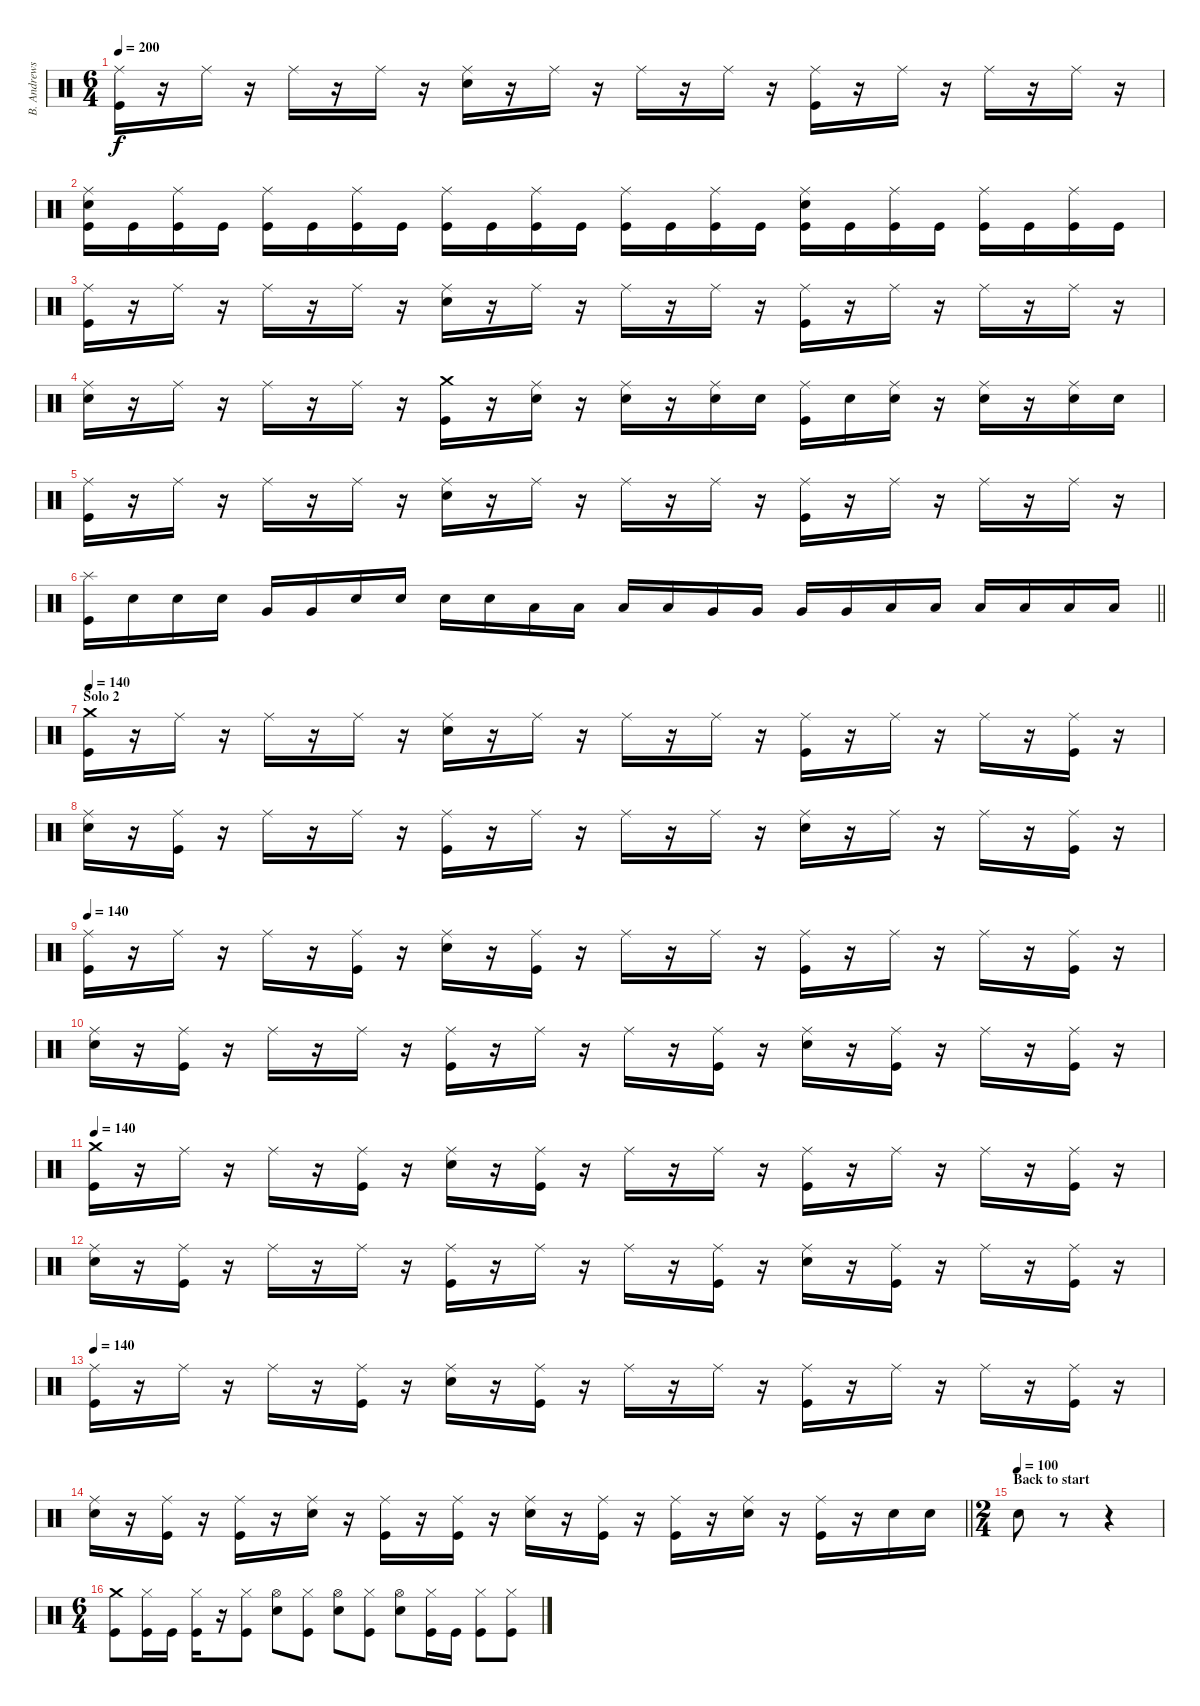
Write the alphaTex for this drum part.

\track ("B. Andrews" "B. Andrews") {instrument percussion}
\staff {score}
\articulation defaults
\ts (6 4)
\tempo 200
\clef neutral
\ks c
("Ride (middle)" "Kick (hit)").16{dy f} r.16 "Ride (middle)".16 r.16 "Ride (middle)".16 r.16 "Ride (middle)".16 r.16 ("Ride (middle)" "Electric Snare (hit)").16 r.16 "Ride (middle)".16 r.16 "Ride (middle)".16 r.16 "Ride (middle)".16 r.16 ("Ride (middle)" "Kick (hit)").16 r.16 "Ride (middle)".16 r.16 "Ride (middle)".16 r.16 "Ride (middle)".16 r.16 |
("Ride (middle)" "Electric Snare (hit)" "Kick (hit)").16 "Kick (hit)".16 ("Ride (middle)" "Kick (hit)").16 "Kick (hit)".16 ("Ride (middle)" "Kick (hit)").16 "Kick (hit)".16 ("Ride (middle)" "Kick (hit)").16 "Kick (hit)".16 ("Ride (middle)" "Kick (hit)").16 "Kick (hit)".16 ("Ride (middle)" "Kick (hit)").16 "Kick (hit)".16 ("Ride (middle)" "Kick (hit)").16 "Kick (hit)".16 ("Ride (middle)" "Kick (hit)").16 "Kick (hit)".16 ("Ride (middle)" "Electric Snare (hit)" "Kick (hit)").16 "Kick (hit)".16 ("Ride (middle)" "Kick (hit)").16 "Kick (hit)".16 ("Ride (middle)" "Kick (hit)").16 "Kick (hit)".16 ("Ride (middle)" "Kick (hit)").16 "Kick (hit)".16 |
("Ride (middle)" "Kick (hit)").16 r.16 "Ride (middle)".16 r.16 "Ride (middle)".16 r.16 "Ride (middle)".16 r.16 ("Ride (middle)" "Electric Snare (hit)").16 r.16 "Ride (middle)".16 r.16 "Ride (middle)".16 r.16 "Ride (middle)".16 r.16 ("Ride (middle)" "Kick (hit)").16 r.16 "Ride (middle)".16 r.16 "Ride (middle)".16 r.16 "Ride (middle)".16 r.16 |
("Ride (middle)" "Electric Snare (hit)").16 r.16 "Ride (middle)".16 r.16 "Ride (middle)".16 r.16 "Ride (middle)".16 r.16 ("Crash medium (hit)" "Kick (hit)").16 r.16 ("Ride (middle)" "Electric Snare (hit)").16 r.16 ("Ride (middle)" "Electric Snare (hit)").16 r.16 ("Ride (middle)" "Electric Snare (hit)").16 "Electric Snare (hit)".16 ("Ride (middle)" "Kick (hit)").16 "Electric Snare (hit)".16 ("Ride (middle)" "Electric Snare (hit)").16 r.16 ("Ride (middle)" "Electric Snare (hit)").16 r.16 ("Ride (middle)" "Electric Snare (hit)").16 "Electric Snare (hit)".16 |
("Ride (middle)" "Kick (hit)").16 r.16 "Ride (middle)".16 r.16 "Ride (middle)".16 r.16 "Ride (middle)".16 r.16 ("Ride (middle)" "Electric Snare (hit)").16 r.16 "Ride (middle)".16 r.16 "Ride (middle)".16 r.16 "Ride (middle)".16 r.16 ("Ride (middle)" "Kick (hit)").16 r.16 "Ride (middle)".16 r.16 "Ride (middle)".16 r.16 "Ride (middle)".16 r.16 |
\barLineRight lightlight
("Splash (hit)" "Kick (hit)").16 "Electric Snare (hit)".16 "Electric Snare (hit)".16 "Electric Snare (hit)".16 "Very Low Tom (hit)".16 "Very Low Tom (hit)".16 "Electric Snare (hit)".16 "Electric Snare (hit)".16 "Electric Snare (hit)".16 "Electric Snare (hit)".16 "Low Tom (hit)".16 "Low Tom (hit)".16 "Low Tom (hit)".16 "Low Tom (hit)".16 "Very Low Tom (hit)".16 "Very Low Tom (hit)".16 "Very Low Tom (hit)".16 "Very Low Tom (hit)".16 "Low Floor Tom (hit)".16 "Low Floor Tom (hit)".16 "Low Floor Tom (hit)".16 "Low Floor Tom (hit)".16 "Low Floor Tom (hit)".16 "Low Floor Tom (hit)".16 |
\section ("" "Solo 2")
\tempo 140
("Crash medium (hit)" "Kick (hit)").16 r.16 "Ride (middle)".16 r.16 "Ride (middle)".16 r.16 "Ride (middle)".16 r.16 ("Ride (middle)" "Electric Snare (hit)").16 r.16 "Ride (middle)".16 r.16 "Ride (middle)".16 r.16 "Ride (middle)".16 r.16 ("Ride (middle)" "Kick (hit)").16 r.16 "Ride (middle)".16 r.16 "Ride (middle)".16 r.16 ("Ride (middle)" "Kick (hit)").16 r.16 |
("Ride (middle)" "Electric Snare (hit)").16 r.16 ("Ride (middle)" "Kick (hit)").16 r.16 "Ride (middle)".16 r.16 "Ride (middle)".16 r.16 ("Ride (middle)" "Kick (hit)").16 r.16 "Ride (middle)".16 r.16 "Ride (middle)".16 r.16 "Ride (middle)".16 r.16 ("Ride (middle)" "Electric Snare (hit)").16 r.16 "Ride (middle)".16 r.16 "Ride (middle)".16 r.16 ("Ride (middle)" "Kick (hit)").16 r.16 |
\tempo 140
("Ride (middle)" "Kick (hit)").16 r.16 "Ride (middle)".16 r.16 "Ride (middle)".16 r.16 ("Ride (middle)" "Kick (hit)").16 r.16 ("Ride (middle)" "Electric Snare (hit)").16 r.16 ("Ride (middle)" "Kick (hit)").16 r.16 "Ride (middle)".16 r.16 "Ride (middle)".16 r.16 ("Ride (middle)" "Kick (hit)").16 r.16 "Ride (middle)".16 r.16 "Ride (middle)".16 r.16 ("Ride (middle)" "Kick (hit)").16 r.16 |
("Ride (middle)" "Electric Snare (hit)").16 r.16 ("Ride (middle)" "Kick (hit)").16 r.16 "Ride (middle)".16 r.16 "Ride (middle)".16 r.16 ("Ride (middle)" "Kick (hit)").16 r.16 "Ride (middle)".16 r.16 "Ride (middle)".16 r.16 ("Ride (middle)" "Kick (hit)").16 r.16 ("Ride (middle)" "Electric Snare (hit)").16 r.16 ("Ride (middle)" "Kick (hit)").16 r.16 "Ride (middle)".16 r.16 ("Ride (middle)" "Kick (hit)").16 r.16 |
\tempo 140
("Crash medium (hit)" "Kick (hit)").16 r.16 "Ride (middle)".16 r.16 "Ride (middle)".16 r.16 ("Ride (middle)" "Kick (hit)").16 r.16 ("Ride (middle)" "Electric Snare (hit)").16 r.16 ("Ride (middle)" "Kick (hit)").16 r.16 "Ride (middle)".16 r.16 "Ride (middle)".16 r.16 ("Ride (middle)" "Kick (hit)").16 r.16 "Ride (middle)".16 r.16 "Ride (middle)".16 r.16 ("Ride (middle)" "Kick (hit)").16 r.16 |
("Ride (middle)" "Electric Snare (hit)").16 r.16 ("Ride (middle)" "Kick (hit)").16 r.16 "Ride (middle)".16 r.16 "Ride (middle)".16 r.16 ("Ride (middle)" "Kick (hit)").16 r.16 "Ride (middle)".16 r.16 "Ride (middle)".16 r.16 ("Ride (middle)" "Kick (hit)").16 r.16 ("Ride (middle)" "Electric Snare (hit)").16 r.16 ("Ride (middle)" "Kick (hit)").16 r.16 "Ride (middle)".16 r.16 ("Ride (middle)" "Kick (hit)").16 r.16 |
\tempo 140
("Ride (middle)" "Kick (hit)").16 r.16 "Ride (middle)".16 r.16 "Ride (middle)".16 r.16 ("Ride (middle)" "Kick (hit)").16 r.16 ("Ride (middle)" "Electric Snare (hit)").16 r.16 ("Ride (middle)" "Kick (hit)").16 r.16 "Ride (middle)".16 r.16 "Ride (middle)".16 r.16 ("Ride (middle)" "Kick (hit)").16 r.16 "Ride (middle)".16 r.16 "Ride (middle)".16 r.16 ("Ride (middle)" "Kick (hit)").16 r.16 |
\barLineRight lightlight
("Ride (middle)" "Electric Snare (hit)").16 r.16 ("Ride (middle)" "Kick (hit)").16 r.16 ("Ride (middle)" "Kick (hit)").16 r.16 ("Ride (middle)" "Electric Snare (hit)").16 r.16 ("Ride (middle)" "Kick (hit)").16 r.16 ("Ride (middle)" "Kick (hit)").16 r.16 ("Ride (middle)" "Electric Snare (hit)").16 r.16 ("Ride (middle)" "Kick (hit)").16 r.16 ("Ride (middle)" "Kick (hit)").16 r.16 ("Ride (middle)" "Electric Snare (hit)").16 r.16 ("Ride (middle)" "Kick (hit)").16 r.16 "Electric Snare (hit)".16 "Electric Snare (hit)".16 |
\ts (2 4)
\section ("" "Back to start")
\tempo 105
\tempo (100)
"Electric Snare (hit)".8 r.8 r.4 |
\ts (6 4)
("Crash medium (hit)" "Kick (hit)").8 ("Hi-Hat (closed)" "Kick (hit)").16 "Kick (hit)".16 ("Hi-Hat (closed)" "Kick (hit)").16 r.16 ("Hi-Hat (closed)" "Kick (hit)").8 ("Hi-Hat (open)" "Electric Snare (hit)").8 ("Hi-Hat (closed)" "Kick (hit)").8 ("Hi-Hat (open)" "Electric Snare (hit)").8 ("Hi-Hat (closed)" "Kick (hit)").8 ("Hi-Hat (open)" "Electric Snare (hit)").8 ("Hi-Hat (closed)" "Kick (hit)").16 "Kick (hit)".16 ("Hi-Hat (closed)" "Kick (hit)").8 ("Hi-Hat (closed)" "Kick (hit)").8
